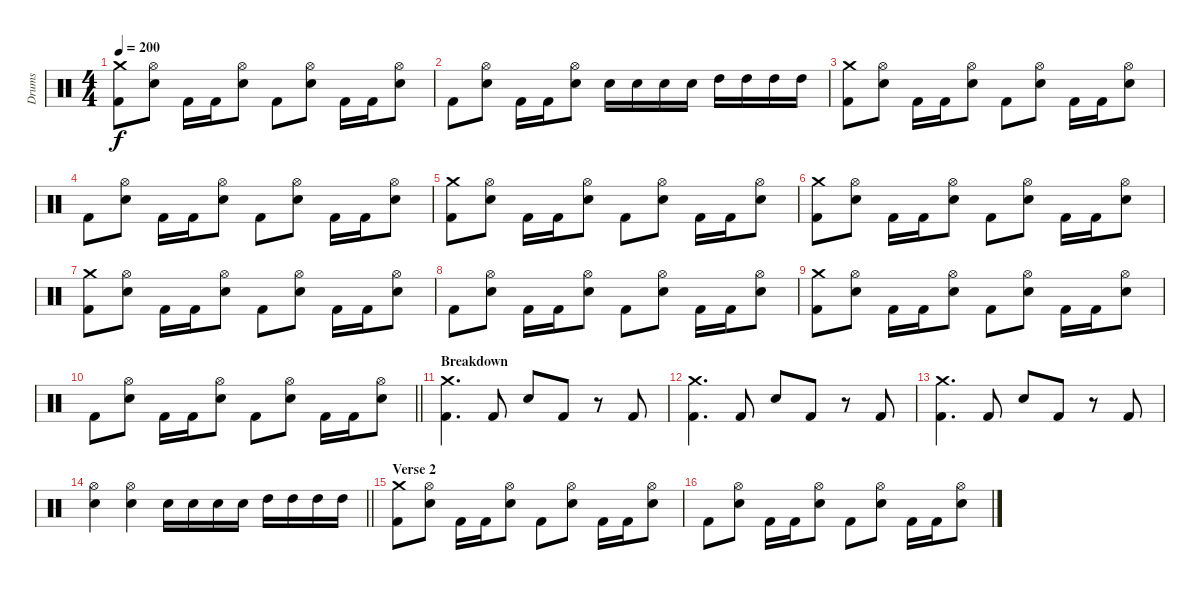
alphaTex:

\track ("Drums" "Drums") {instrument percussion}
\staff {score}
\articulation defaults
\ts (4 4)
\tempo 200
\clef neutral
\ks c
("Crash medium (hit)" "Kick (hit) 2").8{dy f} ("Hi-Hat (open)" "Electric Snare (hit)").8 "Kick (hit) 2".16 "Kick (hit) 2".16 ("Hi-Hat (open)" "Electric Snare (hit)").8 "Kick (hit) 2".8 ("Hi-Hat (open)" "Electric Snare (hit)").8 "Kick (hit) 2".16 "Kick (hit) 2".16 ("Hi-Hat (open)" "Electric Snare (hit)").8 |
"Kick (hit) 2".8 ("Hi-Hat (open)" "Electric Snare (hit)").8 "Kick (hit) 2".16 "Kick (hit) 2".16 ("Hi-Hat (open)" "Electric Snare (hit)").8 "Electric Snare (hit)".16 "Electric Snare (hit)".16 "Electric Snare (hit)".16 "Electric Snare (hit)".16 "High Tom (hit)".16 "High Tom (hit)".16 "High Tom (hit)".16 "High Tom (hit)".16 |
("Crash medium (hit)" "Kick (hit) 2").8 ("Hi-Hat (open)" "Electric Snare (hit)").8 "Kick (hit) 2".16 "Kick (hit) 2".16 ("Hi-Hat (open)" "Electric Snare (hit)").8 "Kick (hit) 2".8 ("Hi-Hat (open)" "Electric Snare (hit)").8 "Kick (hit) 2".16 "Kick (hit) 2".16 ("Hi-Hat (open)" "Electric Snare (hit)").8 |
"Kick (hit) 2".8 ("Hi-Hat (open)" "Electric Snare (hit)").8 "Kick (hit) 2".16 "Kick (hit) 2".16 ("Hi-Hat (open)" "Electric Snare (hit)").8 "Kick (hit) 2".8 ("Hi-Hat (open)" "Electric Snare (hit)").8 "Kick (hit) 2".16 "Kick (hit) 2".16 ("Hi-Hat (open)" "Electric Snare (hit)").8 |
("Crash medium (hit)" "Kick (hit) 2").8 ("Hi-Hat (open)" "Electric Snare (hit)").8 "Kick (hit) 2".16 "Kick (hit) 2".16 ("Hi-Hat (open)" "Electric Snare (hit)").8 "Kick (hit) 2".8 ("Hi-Hat (open)" "Electric Snare (hit)").8 "Kick (hit) 2".16 "Kick (hit) 2".16 ("Hi-Hat (open)" "Electric Snare (hit)").8 |
("Crash medium (hit)" "Kick (hit) 2").8 ("Hi-Hat (open)" "Electric Snare (hit)").8 "Kick (hit) 2".16 "Kick (hit) 2".16 ("Hi-Hat (open)" "Electric Snare (hit)").8 "Kick (hit) 2".8 ("Hi-Hat (open)" "Electric Snare (hit)").8 "Kick (hit) 2".16 "Kick (hit) 2".16 ("Hi-Hat (open)" "Electric Snare (hit)").8 |
("Crash medium (hit)" "Kick (hit) 2").8 ("Hi-Hat (open)" "Electric Snare (hit)").8 "Kick (hit) 2".16 "Kick (hit) 2".16 ("Hi-Hat (open)" "Electric Snare (hit)").8 "Kick (hit) 2".8 ("Hi-Hat (open)" "Electric Snare (hit)").8 "Kick (hit) 2".16 "Kick (hit) 2".16 ("Hi-Hat (open)" "Electric Snare (hit)").8 |
"Kick (hit) 2".8 ("Hi-Hat (open)" "Electric Snare (hit)").8 "Kick (hit) 2".16 "Kick (hit) 2".16 ("Hi-Hat (open)" "Electric Snare (hit)").8 "Kick (hit) 2".8 ("Hi-Hat (open)" "Electric Snare (hit)").8 "Kick (hit) 2".16 "Kick (hit) 2".16 ("Hi-Hat (open)" "Electric Snare (hit)").8 |
("Crash medium (hit)" "Kick (hit) 2").8 ("Hi-Hat (open)" "Electric Snare (hit)").8 "Kick (hit) 2".16 "Kick (hit) 2".16 ("Hi-Hat (open)" "Electric Snare (hit)").8 "Kick (hit) 2".8 ("Hi-Hat (open)" "Electric Snare (hit)").8 "Kick (hit) 2".16 "Kick (hit) 2".16 ("Hi-Hat (open)" "Electric Snare (hit)").8 |
\barLineRight lightlight "Kick (hit) 2".8
("Hi-Hat (open)" "Electric Snare (hit)").8 "Kick (hit) 2".16 "Kick (hit) 2".16 ("Hi-Hat (open)" "Electric Snare (hit)").8 "Kick (hit) 2".8 ("Hi-Hat (open)" "Electric Snare (hit)").8 "Kick (hit) 2".16 "Kick (hit) 2".16 ("Hi-Hat (open)" "Electric Snare (hit)").8 |
\section ("" "Breakdown")
("Crash medium (hit)" "Kick (hit) 2").4{d} "Kick (hit) 2".8 "Electric Snare (hit)".8 "Kick (hit) 2".8 r.8 "Kick (hit) 2".8 |
("Crash medium (hit)" "Kick (hit) 2").4{d} "Kick (hit) 2".8 "Electric Snare (hit)".8 "Kick (hit) 2".8 r.8 "Kick (hit) 2".8 |
("Crash medium (hit)" "Kick (hit) 2").4{d} "Kick (hit) 2".8 "Electric Snare (hit)".8 "Kick (hit) 2".8 r.8 "Kick (hit) 2".8 |
\barLineRight lightlight
("Hi-Hat (open)" "Electric Snare (hit)").4 ("Hi-Hat (open)" "Electric Snare (hit)").4 "Electric Snare (hit)".16 "Electric Snare (hit)".16 "Electric Snare (hit)".16 "Electric Snare (hit)".16 "High Tom (hit)".16{balance 0} "High Tom (hit)".16 "High Tom (hit)".16 "High Tom (hit)".16 |
\section ("" "Verse 2")
("Crash medium (hit)" "Kick (hit) 2").8{balance 8} ("Hi-Hat (open)" "Electric Snare (hit)").8 "Kick (hit) 2".16 "Kick (hit) 2".16 ("Hi-Hat (open)" "Electric Snare (hit)").8 "Kick (hit) 2".8 ("Hi-Hat (open)" "Electric Snare (hit)").8 "Kick (hit) 2".16 "Kick (hit) 2".16 ("Hi-Hat (open)" "Electric Snare (hit)").8 |
"Kick (hit) 2".8 ("Hi-Hat (open)" "Electric Snare (hit)").8 "Kick (hit) 2".16 "Kick (hit) 2".16 ("Hi-Hat (open)" "Electric Snare (hit)").8 "Kick (hit) 2".8 ("Hi-Hat (open)" "Electric Snare (hit)").8 "Kick (hit) 2".16 "Kick (hit) 2".16 ("Hi-Hat (open)" "Electric Snare (hit)").8
